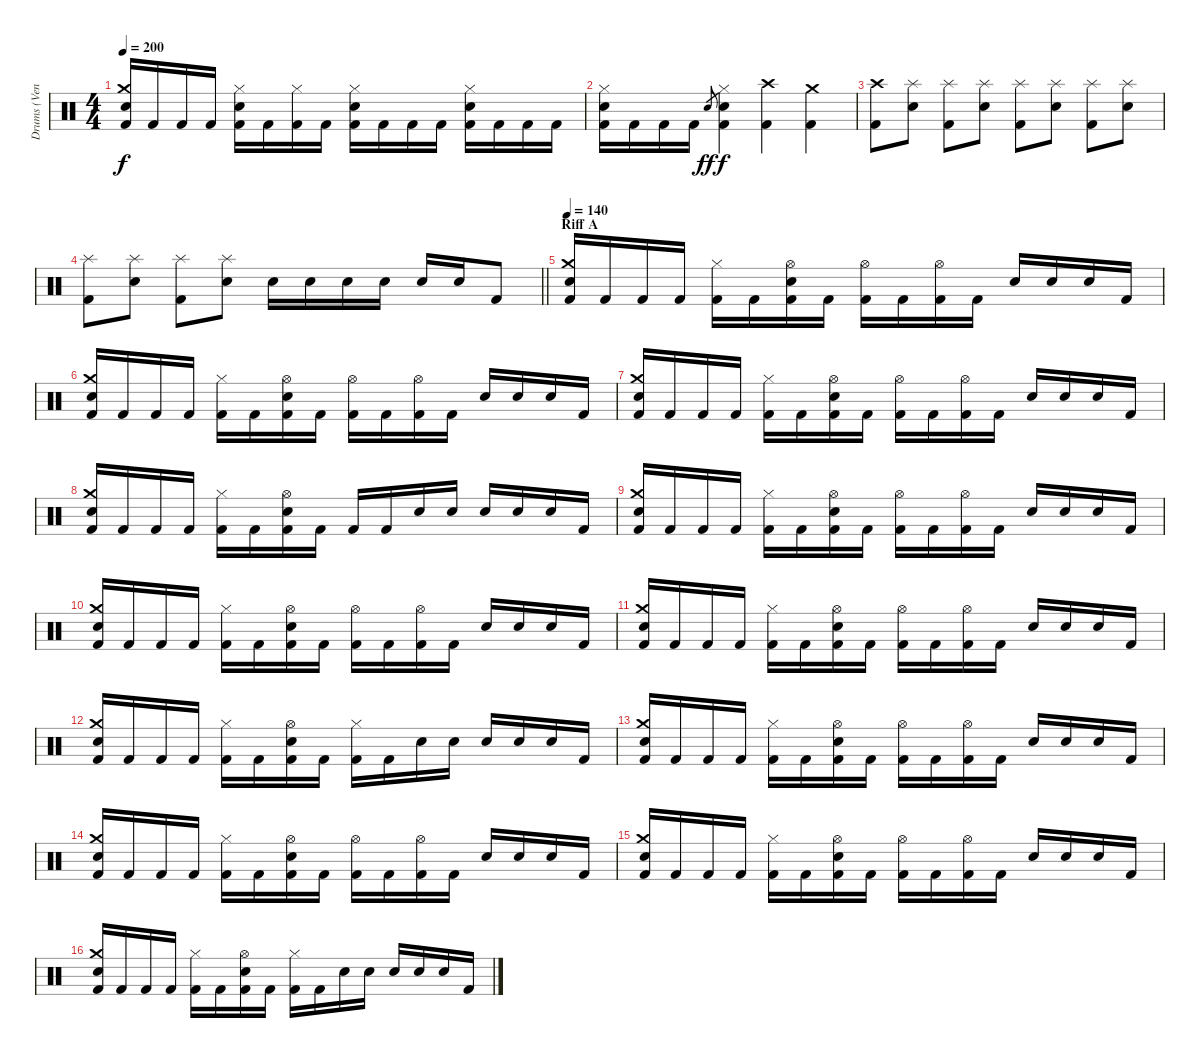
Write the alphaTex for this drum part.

\track ("Drums (Ventor)" "Drums (Ven") {instrument percussion}
\staff {score}
\articulation defaults
\ts (4 4)
\tempo 200
\clef neutral
\ks c
("Electric Snare (hit)" "Crash medium (hit)" "Kick (hit) 2").16{dy f} "Kick (hit) 2".16 "Kick (hit) 2".16 "Kick (hit) 2".16 ("Electric Snare (hit)" "Hi-Hat (closed)" "Kick (hit) 2").16 "Kick (hit) 2".16 ("Hi-Hat (closed)" "Kick (hit) 2").16 "Kick (hit) 2".16 ("Electric Snare (hit)" "Hi-Hat (closed)" "Kick (hit) 2").16 "Kick (hit) 2".16 "Kick (hit) 2".16 "Kick (hit) 2".16 ("Electric Snare (hit)" "Hi-Hat (closed)" "Kick (hit) 2").16 "Kick (hit) 2".16 "Kick (hit) 2".16 "Kick (hit) 2".16 |
("Electric Snare (hit)" "Hi-Hat (closed)" "Kick (hit) 2").16 "Kick (hit) 2".16 "Kick (hit) 2".16 "Kick (hit) 2".16 "Electric Snare (hit)".8{gr dy ff} ("Electric Snare (hit)" "Hi-Hat (closed)" "Kick (hit) 2").4{dy f} ("Crash high (hit)" "Kick (hit) 2").4 ("Crash medium (hit)" "Kick (hit) 2").4 |
("Crash high (hit)" "Kick (hit) 2").8 ("Electric Snare (hit)" "Splash (hit)").8 ("Splash (hit)" "Kick (hit) 2").8 ("Electric Snare (hit)" "Splash (hit)").8 ("Splash (hit)" "Kick (hit) 2").8 ("Electric Snare (hit)" "Splash (hit)").8 ("Splash (hit)" "Kick (hit) 2").8 ("Electric Snare (hit)" "Splash (hit)").8 |
\barLineRight lightlight
("Splash (hit)" "Kick (hit) 2").8 ("Electric Snare (hit)" "Splash (hit)").8 ("Splash (hit)" "Kick (hit) 2").8 ("Electric Snare (hit)" "Splash (hit)").8 "Electric Snare (hit)".16 "Electric Snare (hit)".16 "Electric Snare (hit)".16 "Electric Snare (hit)".16 "Electric Snare (hit)".16 "Electric Snare (hit)".16 "Kick (hit) 2".8 |
\section ("" "Riff A")
\tempo 140
("Electric Snare (hit)" "Crash medium (hit)" "Kick (hit) 2").16 "Kick (hit) 2".16 "Kick (hit) 2".16 "Kick (hit) 2".16 ("Hi-Hat (closed)" "Kick (hit) 2").16 "Kick (hit) 2".16 ("Electric Snare (hit)" "Hi-Hat (open)" "Kick (hit) 2").16 "Kick (hit) 2".16 ("Hi-Hat (open)" "Kick (hit) 2").16 "Kick (hit) 2".16 ("Hi-Hat (open)" "Kick (hit) 2").16 "Kick (hit) 2".16 "Electric Snare (hit)".16 "Electric Snare (hit)".16 "Electric Snare (hit)".16 "Kick (hit) 2".16 |
("Electric Snare (hit)" "Crash medium (hit)" "Kick (hit) 2").16 "Kick (hit) 2".16 "Kick (hit) 2".16 "Kick (hit) 2".16 ("Hi-Hat (closed)" "Kick (hit) 2").16 "Kick (hit) 2".16 ("Electric Snare (hit)" "Hi-Hat (open)" "Kick (hit) 2").16 "Kick (hit) 2".16 ("Hi-Hat (open)" "Kick (hit) 2").16 "Kick (hit) 2".16 ("Hi-Hat (open)" "Kick (hit) 2").16 "Kick (hit) 2".16 "Electric Snare (hit)".16 "Electric Snare (hit)".16 "Electric Snare (hit)".16 "Kick (hit) 2".16 |
("Electric Snare (hit)" "Crash medium (hit)" "Kick (hit) 2").16 "Kick (hit) 2".16 "Kick (hit) 2".16 "Kick (hit) 2".16 ("Hi-Hat (closed)" "Kick (hit) 2").16 "Kick (hit) 2".16 ("Electric Snare (hit)" "Hi-Hat (open)" "Kick (hit) 2").16 "Kick (hit) 2".16 ("Hi-Hat (open)" "Kick (hit) 2").16 "Kick (hit) 2".16 ("Hi-Hat (open)" "Kick (hit) 2").16 "Kick (hit) 2".16 "Electric Snare (hit)".16 "Electric Snare (hit)".16 "Electric Snare (hit)".16 "Kick (hit) 2".16 |
("Electric Snare (hit)" "Crash medium (hit)" "Kick (hit) 2").16 "Kick (hit) 2".16 "Kick (hit) 2".16 "Kick (hit) 2".16 ("Hi-Hat (closed)" "Kick (hit) 2").16 "Kick (hit) 2".16 ("Electric Snare (hit)" "Hi-Hat (open)" "Kick (hit) 2").16 "Kick (hit) 2".16 "Kick (hit) 2".16 "Kick (hit) 2".16 "Electric Snare (hit)".16 "Electric Snare (hit)".16 "Electric Snare (hit)".16 "Electric Snare (hit)".16 "Electric Snare (hit)".16 "Kick (hit) 2".16 |
("Electric Snare (hit)" "Crash medium (hit)" "Kick (hit) 2").16 "Kick (hit) 2".16 "Kick (hit) 2".16 "Kick (hit) 2".16 ("Hi-Hat (closed)" "Kick (hit) 2").16 "Kick (hit) 2".16 ("Electric Snare (hit)" "Hi-Hat (open)" "Kick (hit) 2").16 "Kick (hit) 2".16 ("Hi-Hat (open)" "Kick (hit) 2").16 "Kick (hit) 2".16 ("Hi-Hat (open)" "Kick (hit) 2").16 "Kick (hit) 2".16 "Electric Snare (hit)".16 "Electric Snare (hit)".16 "Electric Snare (hit)".16 "Kick (hit) 2".16 |
("Electric Snare (hit)" "Crash medium (hit)" "Kick (hit) 2").16 "Kick (hit) 2".16 "Kick (hit) 2".16 "Kick (hit) 2".16 ("Hi-Hat (closed)" "Kick (hit) 2").16 "Kick (hit) 2".16 ("Electric Snare (hit)" "Hi-Hat (open)" "Kick (hit) 2").16 "Kick (hit) 2".16 ("Hi-Hat (open)" "Kick (hit) 2").16 "Kick (hit) 2".16 ("Hi-Hat (open)" "Kick (hit) 2").16 "Kick (hit) 2".16 "Electric Snare (hit)".16 "Electric Snare (hit)".16 "Electric Snare (hit)".16 "Kick (hit) 2".16 |
("Electric Snare (hit)" "Crash medium (hit)" "Kick (hit) 2").16 "Kick (hit) 2".16 "Kick (hit) 2".16 "Kick (hit) 2".16 ("Hi-Hat (closed)" "Kick (hit) 2").16 "Kick (hit) 2".16 ("Electric Snare (hit)" "Hi-Hat (open)" "Kick (hit) 2").16 "Kick (hit) 2".16 ("Hi-Hat (open)" "Kick (hit) 2").16 "Kick (hit) 2".16 ("Hi-Hat (open)" "Kick (hit) 2").16 "Kick (hit) 2".16 "Electric Snare (hit)".16 "Electric Snare (hit)".16 "Electric Snare (hit)".16 "Kick (hit) 2".16 |
("Electric Snare (hit)" "Crash medium (hit)" "Kick (hit) 2").16 "Kick (hit) 2".16 "Kick (hit) 2".16 "Kick (hit) 2".16 ("Hi-Hat (closed)" "Kick (hit) 2").16 "Kick (hit) 2".16 ("Electric Snare (hit)" "Hi-Hat (open)" "Kick (hit) 2").16 "Kick (hit) 2".16 ("Hi-Hat (closed)" "Kick (hit) 2").16 "Kick (hit) 2".16 "Electric Snare (hit)".16 "Electric Snare (hit)".16 "Electric Snare (hit)".16 "Electric Snare (hit)".16 "Electric Snare (hit)".16 "Kick (hit) 2".16 |
("Electric Snare (hit)" "Crash medium (hit)" "Kick (hit) 2").16 "Kick (hit) 2".16 "Kick (hit) 2".16 "Kick (hit) 2".16 ("Hi-Hat (closed)" "Kick (hit) 2").16 "Kick (hit) 2".16 ("Electric Snare (hit)" "Hi-Hat (open)" "Kick (hit) 2").16 "Kick (hit) 2".16 ("Hi-Hat (open)" "Kick (hit) 2").16 "Kick (hit) 2".16 ("Hi-Hat (open)" "Kick (hit) 2").16 "Kick (hit) 2".16 "Electric Snare (hit)".16 "Electric Snare (hit)".16 "Electric Snare (hit)".16 "Kick (hit) 2".16 |
("Electric Snare (hit)" "Crash medium (hit)" "Kick (hit) 2").16 "Kick (hit) 2".16 "Kick (hit) 2".16 "Kick (hit) 2".16 ("Hi-Hat (closed)" "Kick (hit) 2").16 "Kick (hit) 2".16 ("Electric Snare (hit)" "Hi-Hat (open)" "Kick (hit) 2").16 "Kick (hit) 2".16 ("Hi-Hat (open)" "Kick (hit) 2").16 "Kick (hit) 2".16 ("Hi-Hat (open)" "Kick (hit) 2").16 "Kick (hit) 2".16 "Electric Snare (hit)".16 "Electric Snare (hit)".16 "Electric Snare (hit)".16 "Kick (hit) 2".16 |
("Electric Snare (hit)" "Crash medium (hit)" "Kick (hit) 2").16 "Kick (hit) 2".16 "Kick (hit) 2".16 "Kick (hit) 2".16 ("Hi-Hat (closed)" "Kick (hit) 2").16 "Kick (hit) 2".16 ("Electric Snare (hit)" "Hi-Hat (open)" "Kick (hit) 2").16 "Kick (hit) 2".16 ("Hi-Hat (open)" "Kick (hit) 2").16 "Kick (hit) 2".16 ("Hi-Hat (open)" "Kick (hit) 2").16 "Kick (hit) 2".16 "Electric Snare (hit)".16 "Electric Snare (hit)".16 "Electric Snare (hit)".16 "Kick (hit) 2".16 |
("Electric Snare (hit)" "Crash medium (hit)" "Kick (hit) 2").16 "Kick (hit) 2".16 "Kick (hit) 2".16 "Kick (hit) 2".16 ("Hi-Hat (closed)" "Kick (hit) 2").16 "Kick (hit) 2".16 ("Electric Snare (hit)" "Hi-Hat (open)" "Kick (hit) 2").16 "Kick (hit) 2".16 ("Hi-Hat (closed)" "Kick (hit) 2").16 "Kick (hit) 2".16 "Electric Snare (hit)".16 "Electric Snare (hit)".16 "Electric Snare (hit)".16 "Electric Snare (hit)".16 "Electric Snare (hit)".16 "Kick (hit) 2".16
